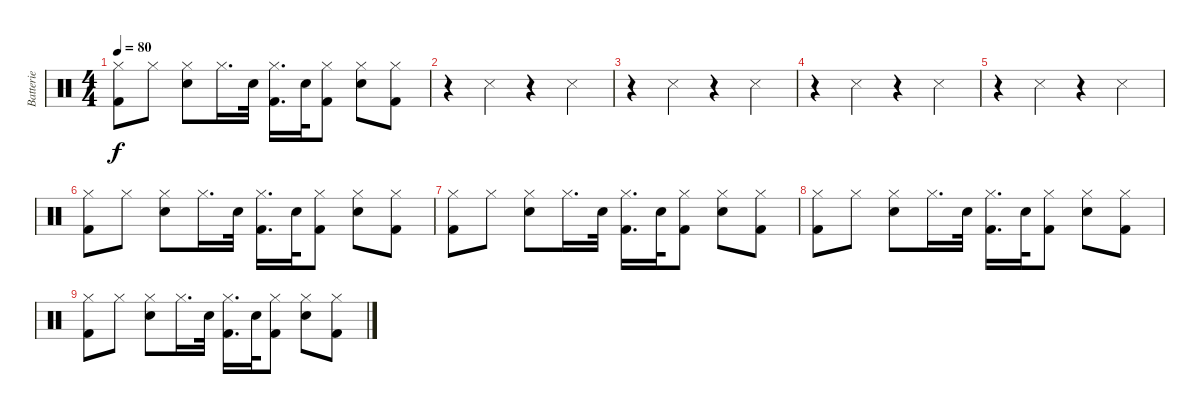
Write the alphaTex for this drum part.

\track ("Batterie" "Batterie") {instrument percussion bank 177}
\staff {score}
\articulation defaults
\ts (4 4)
\tempo 80
\clef neutral
\ks c
("Hi-Hat (closed)" "Kick (hit) 2").8{dy f} "Hi-Hat (closed)".8 ("Hi-Hat (closed)" "Electric Snare (hit)").8 "Hi-Hat (closed)".16{d} "Electric Snare (hit)".32 ("Hi-Hat (closed)" "Kick (hit) 2").16{d} "Electric Snare (hit)".32 ("Hi-Hat (closed)" "Kick (hit) 2").8 ("Hi-Hat (closed)" "Electric Snare (hit)").8 ("Hi-Hat (closed)" "Kick (hit) 2").8 |
r.4 "Snare (side stick) 3".4 r.4 "Snare (side stick) 3".4 |
r.4 "Snare (side stick) 3".4 r.4 "Snare (side stick) 3".4 |
r.4 "Snare (side stick) 3".4 r.4 "Snare (side stick) 3".4 |
r.4 "Snare (side stick) 3".4 r.4 "Snare (side stick) 3".4 |
("Hi-Hat (closed)" "Kick (hit) 2").8 "Hi-Hat (closed)".8 ("Hi-Hat (closed)" "Electric Snare (hit)").8 "Hi-Hat (closed)".16{d} "Electric Snare (hit)".32 ("Hi-Hat (closed)" "Kick (hit) 2").16{d} "Electric Snare (hit)".32 ("Hi-Hat (closed)" "Kick (hit) 2").8 ("Hi-Hat (closed)" "Electric Snare (hit)").8 ("Hi-Hat (closed)" "Kick (hit) 2").8 |
("Hi-Hat (closed)" "Kick (hit) 2").8 "Hi-Hat (closed)".8 ("Hi-Hat (closed)" "Electric Snare (hit)").8 "Hi-Hat (closed)".16{d} "Electric Snare (hit)".32 ("Hi-Hat (closed)" "Kick (hit) 2").16{d} "Electric Snare (hit)".32 ("Hi-Hat (closed)" "Kick (hit) 2").8 ("Hi-Hat (closed)" "Electric Snare (hit)").8 ("Hi-Hat (closed)" "Kick (hit) 2").8 |
("Hi-Hat (closed)" "Kick (hit) 2").8 "Hi-Hat (closed)".8 ("Hi-Hat (closed)" "Electric Snare (hit)").8 "Hi-Hat (closed)".16{d} "Electric Snare (hit)".32 ("Hi-Hat (closed)" "Kick (hit) 2").16{d} "Electric Snare (hit)".32 ("Hi-Hat (closed)" "Kick (hit) 2").8 ("Hi-Hat (closed)" "Electric Snare (hit)").8 ("Hi-Hat (closed)" "Kick (hit) 2").8 |
("Hi-Hat (closed)" "Kick (hit) 2").8 "Hi-Hat (closed)".8 ("Hi-Hat (closed)" "Electric Snare (hit)").8 "Hi-Hat (closed)".16{d} "Electric Snare (hit)".32 ("Hi-Hat (closed)" "Kick (hit) 2").16{d} "Electric Snare (hit)".32 ("Hi-Hat (closed)" "Kick (hit) 2").8 ("Hi-Hat (closed)" "Electric Snare (hit)").8 ("Hi-Hat (closed)" "Kick (hit) 2").8
